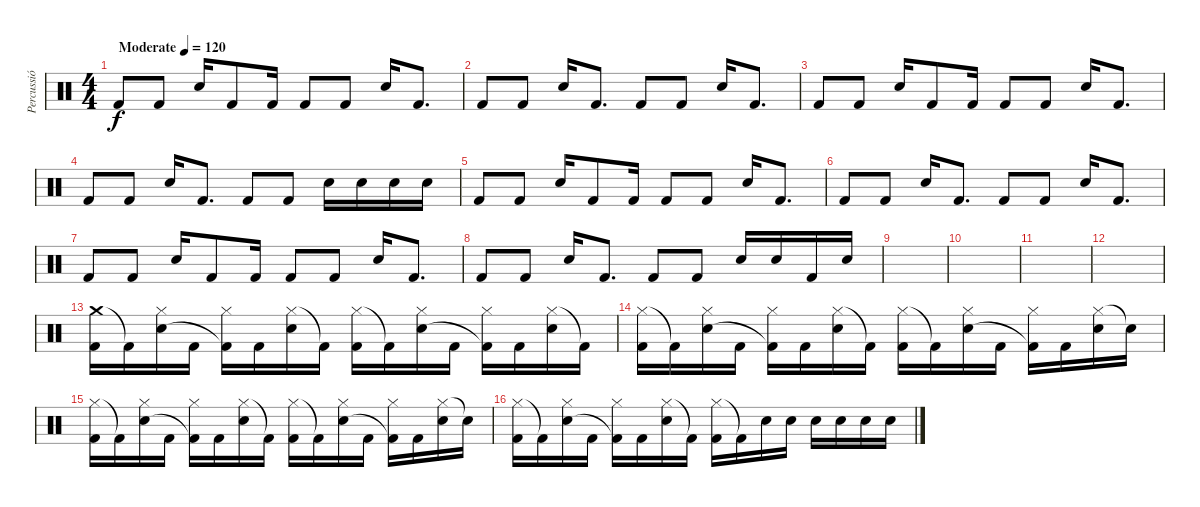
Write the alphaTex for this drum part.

\track ("Percussió" "Percussió") {instrument percussion}
\staff {score}
\articulation defaults
\ts (4 4)
\tempo (120 "Moderate")
\clef neutral
\ks c "Kick (hit) 2".8{dy f} "Kick (hit) 2".8 "Electric Snare (hit)".16 "Kick (hit) 2".8 "Kick (hit) 2".16 "Kick (hit) 2".8 "Kick (hit) 2".8 "Electric Snare (hit)".16 "Kick (hit) 2".8{d}
|
"Kick (hit) 2".8 "Kick (hit) 2".8 "Electric Snare (hit)".16 "Kick (hit) 2".8{d} "Kick (hit) 2".8 "Kick (hit) 2".8 "Electric Snare (hit)".16 "Kick (hit) 2".8{d} |
"Kick (hit) 2".8 "Kick (hit) 2".8 "Electric Snare (hit)".16 "Kick (hit) 2".8 "Kick (hit) 2".16 "Kick (hit) 2".8 "Kick (hit) 2".8 "Electric Snare (hit)".16 "Kick (hit) 2".8{d} |
"Kick (hit) 2".8 "Kick (hit) 2".8 "Electric Snare (hit)".16 "Kick (hit) 2".8{d} "Kick (hit) 2".8 "Kick (hit) 2".8 "Electric Snare (hit)".16 "Electric Snare (hit)".16 "Electric Snare (hit)".16 "Electric Snare (hit)".16 |
"Kick (hit) 2".8 "Kick (hit) 2".8 "Electric Snare (hit)".16 "Kick (hit) 2".8 "Kick (hit) 2".16 "Kick (hit) 2".8 "Kick (hit) 2".8 "Electric Snare (hit)".16 "Kick (hit) 2".8{d} |
"Kick (hit) 2".8 "Kick (hit) 2".8 "Electric Snare (hit)".16 "Kick (hit) 2".8{d} "Kick (hit) 2".8 "Kick (hit) 2".8 "Electric Snare (hit)".16 "Kick (hit) 2".8{d} |
"Kick (hit) 2".8 "Kick (hit) 2".8 "Electric Snare (hit)".16 "Kick (hit) 2".8 "Kick (hit) 2".16 "Kick (hit) 2".8 "Kick (hit) 2".8 "Electric Snare (hit)".16 "Kick (hit) 2".8{d} |
"Kick (hit) 2".8 "Kick (hit) 2".8 "Electric Snare (hit)".16 "Kick (hit) 2".8{d} "Kick (hit) 2".8 "Kick (hit) 2".8 "Electric Snare (hit)".16 "Electric Snare (hit)".16 "Kick (hit) 2".16 "Electric Snare (hit)".16 |
|
|
|
|
("Crash medium (hit)" "Kick (hit) 2").16 "Kick (hit) 2"{t}.16 ("Hi-Hat (closed)" "Electric Snare (hit)").16 "Kick (hit) 2".16 ("Hi-Hat (closed)" "Kick (hit) 2"{t}).16 "Kick (hit) 2".16 ("Hi-Hat (closed)" "Electric Snare (hit)").16 "Kick (hit) 2"{t}.16 ("Hi-Hat (closed)" "Kick (hit) 2").16 "Kick (hit) 2"{t}.16 ("Hi-Hat (closed)" "Electric Snare (hit)").16 "Kick (hit) 2".16 ("Hi-Hat (closed)" "Kick (hit) 2"{t}).16 "Kick (hit) 2".16 ("Hi-Hat (closed)" "Electric Snare (hit)").16 "Kick (hit) 2"{t}.16 |
("Hi-Hat (closed)" "Kick (hit) 2").16 "Kick (hit) 2"{t}.16 ("Hi-Hat (closed)" "Electric Snare (hit)").16 "Kick (hit) 2".16 ("Hi-Hat (closed)" "Kick (hit) 2"{t}).16 "Kick (hit) 2".16 ("Hi-Hat (closed)" "Electric Snare (hit)").16 "Kick (hit) 2"{t}.16 ("Hi-Hat (closed)" "Kick (hit) 2").16 "Kick (hit) 2"{t}.16 ("Hi-Hat (closed)" "Electric Snare (hit)").16 "Kick (hit) 2".16 ("Hi-Hat (closed)" "Kick (hit) 2"{t}).16 "Kick (hit) 2".16 ("Hi-Hat (closed)" "Electric Snare (hit)").16 "Snare (hit)"{t}.16 |
("Hi-Hat (closed)" "Kick (hit) 2").16 "Kick (hit) 2"{t}.16 ("Hi-Hat (closed)" "Electric Snare (hit)").16 "Kick (hit) 2".16 ("Hi-Hat (closed)" "Kick (hit) 2"{t}).16 "Kick (hit) 2".16 ("Hi-Hat (closed)" "Electric Snare (hit)").16 "Kick (hit) 2"{t}.16 ("Hi-Hat (closed)" "Kick (hit) 2").16 "Kick (hit) 2"{t}.16 ("Hi-Hat (closed)" "Electric Snare (hit)").16 "Kick (hit) 2".16 ("Hi-Hat (closed)" "Kick (hit) 2"{t}).16 "Kick (hit) 2".16 ("Hi-Hat (closed)" "Electric Snare (hit)").16 "Snare (hit)"{t}.16 |
("Hi-Hat (closed)" "Kick (hit) 2").16 "Kick (hit) 2"{t}.16 ("Hi-Hat (closed)" "Electric Snare (hit)").16 "Kick (hit) 2".16 ("Hi-Hat (closed)" "Kick (hit) 2"{t}).16 "Kick (hit) 2".16 ("Hi-Hat (closed)" "Electric Snare (hit)").16 "Kick (hit) 2"{t}.16 ("Hi-Hat (closed)" "Kick (hit) 2").16 "Kick (hit) 2"{t}.16 "Electric Snare (hit)".16 "Electric Snare (hit)".16 "Electric Snare (hit)".16 "Electric Snare (hit)".16 "Electric Snare (hit)".16 "Electric Snare (hit)".16
